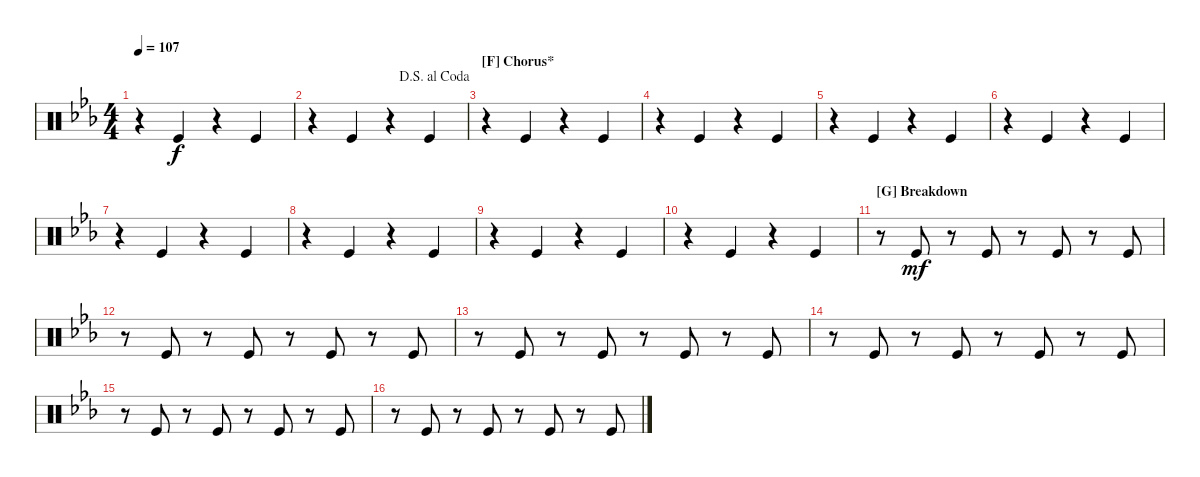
\defaultSystemsLayout 4
\bracketExtendMode groupsimilarinstruments
\singleTrackTrackNamePolicy hidden
\firstSystemTrackNameOrientation horizontal
\otherSystemsTrackNameOrientation horizontal
\chordDiagramsInScore
\track ("Hand Clap" "H-Clap") {instrument percussion}
\staff {score}
\articulation defaults
\ts (4 4)
\tempo 107
\clef neutral
\ks cminor
r.4{dy f} "Kick (hit)".4 r.4 "Kick (hit)".4 |
\jump dalsegnoalcoda
r.4 "Kick (hit)".4 r.4 "Kick (hit)".4 |
\section ("F" "Chorus*")
r.4 "Kick (hit)".4 r.4 "Kick (hit)".4 |
r.4 "Kick (hit)".4 r.4 "Kick (hit)".4 |
r.4 "Kick (hit)".4 r.4 "Kick (hit)".4 |
r.4 "Kick (hit)".4 r.4 "Kick (hit)".4 |
r.4 "Kick (hit)".4 r.4 "Kick (hit)".4 |
r.4 "Kick (hit)".4 r.4 "Kick (hit)".4 |
r.4 "Kick (hit)".4 r.4 "Kick (hit)".4 |
r.4 "Kick (hit)".4 r.4 "Kick (hit)".4 |
\section ("G" "Breakdown")
r.8 "Kick (hit)".8{dy mf} r.8 "Kick (hit)".8 r.8 "Kick (hit)".8 r.8 "Kick (hit)".8 |
r.8 "Kick (hit)".8 r.8 "Kick (hit)".8 r.8 "Kick (hit)".8 r.8 "Kick (hit)".8 |
r.8 "Kick (hit)".8 r.8 "Kick (hit)".8 r.8 "Kick (hit)".8 r.8 "Kick (hit)".8 |
r.8 "Kick (hit)".8 r.8 "Kick (hit)".8 r.8 "Kick (hit)".8 r.8 "Kick (hit)".8 |
r.8 "Kick (hit)".8 r.8 "Kick (hit)".8 r.8 "Kick (hit)".8 r.8 "Kick (hit)".8 |
r.8 "Kick (hit)".8 r.8 "Kick (hit)".8 r.8 "Kick (hit)".8 r.8 "Kick (hit)".8
